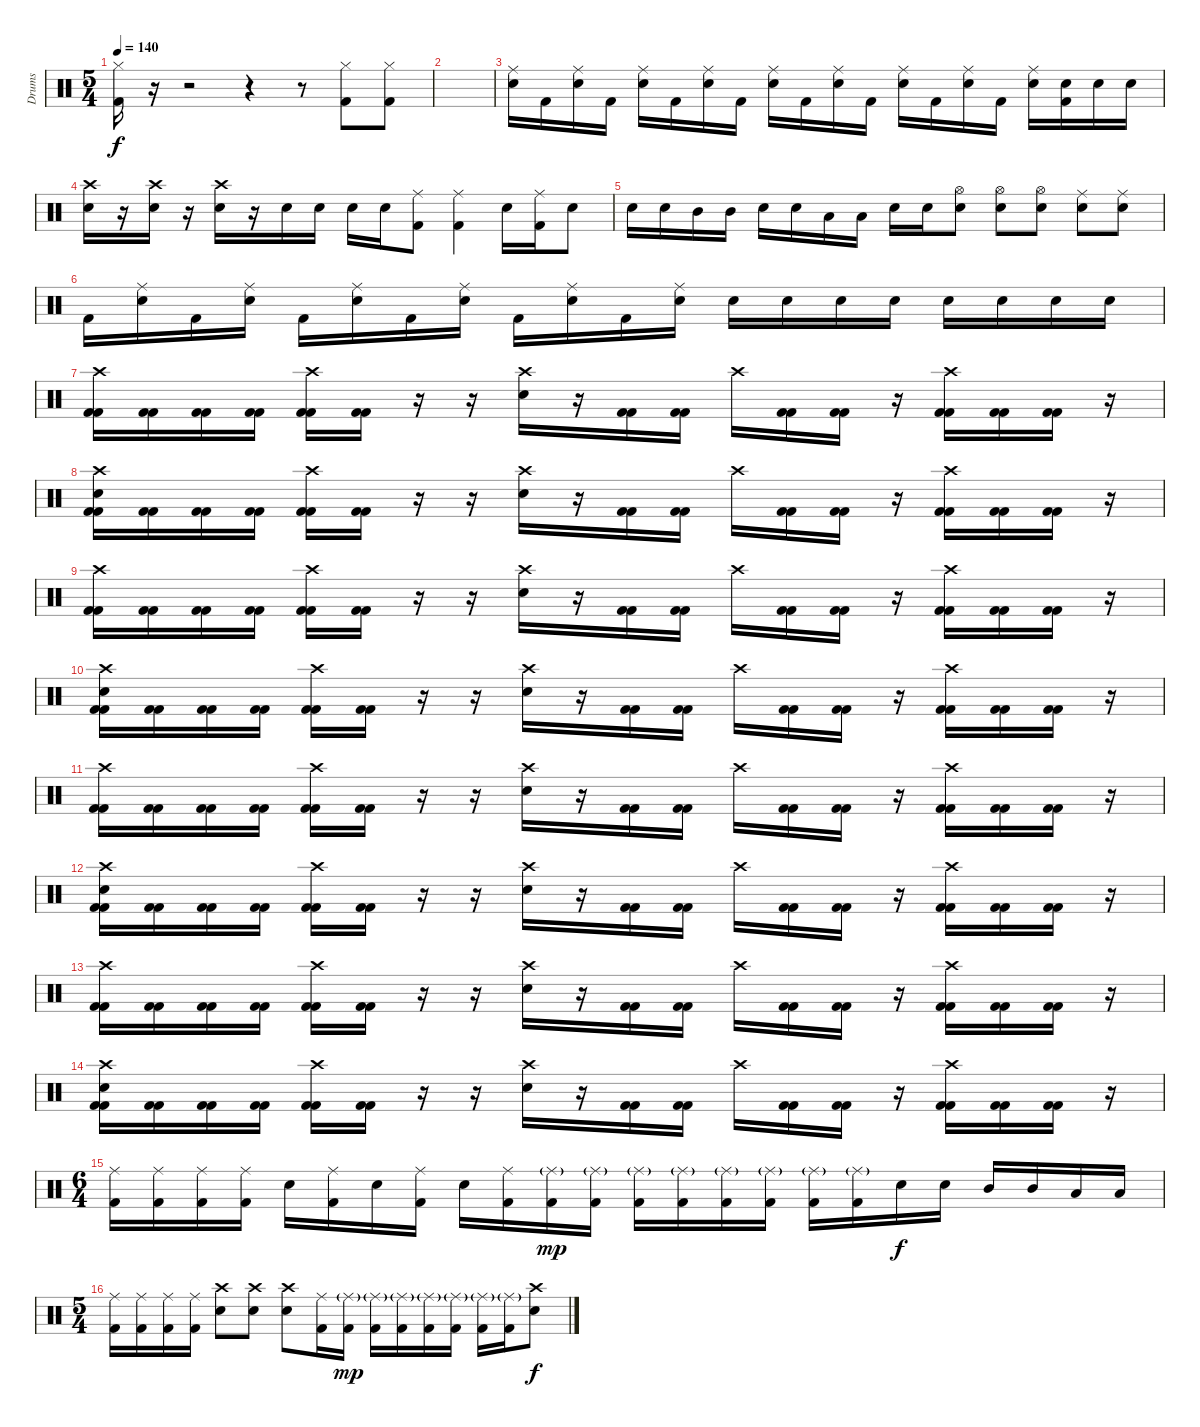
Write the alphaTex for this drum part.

\track ("Drums" "Drums") {instrument percussion}
\staff {score}
\articulation defaults
\ts (5 4)
\tempo 140
\clef neutral
\ks c
("Hi-Hat (closed)" "Kick (hit) 2").16{dy f} r.16 r.2 r.4 r.8 ("Hi-Hat (closed)" "Kick (hit) 2").8 ("Hi-Hat (closed)" "Kick (hit) 2").8 |
|
("Ride (middle)" "Electric Snare (hit)").16 "Kick (hit) 2".16 ("Ride (middle)" "Electric Snare (hit)").16 "Kick (hit) 2".16 ("Ride (middle)" "Electric Snare (hit)").16 "Kick (hit) 2".16 ("Ride (middle)" "Electric Snare (hit)").16 "Kick (hit) 2".16 ("Ride (middle)" "Electric Snare (hit)").16 "Kick (hit) 2".16 ("Ride (middle)" "Electric Snare (hit)").16 "Kick (hit) 2".16 ("Ride (middle)" "Electric Snare (hit)").16 "Kick (hit) 2".16 ("Ride (middle)" "Electric Snare (hit)").16 "Kick (hit) 2".16 ("Ride (middle)" "Electric Snare (hit)").16 ("Electric Snare (hit)" "Kick (hit) 2").16 "Electric Snare (hit)".16 "Electric Snare (hit)".16 |
("Crash high (hit)" "Electric Snare (hit)").16 r.16 ("Crash high (hit)" "Electric Snare (hit)").16 r.16 ("Crash high (hit)" "Electric Snare (hit)").16 r.16 "Electric Snare (hit)".16 "Electric Snare (hit)".16 "Electric Snare (hit)".16 "Electric Snare (hit)".16 ("Ride (middle)" "Kick (hit) 2").8 ("Ride (middle)" "Kick (hit) 2").4 "Electric Snare (hit)".16 ("Ride (middle)" "Kick (hit) 2").16 "Electric Snare (hit)".8 |
"Electric Snare (hit)".16 "Electric Snare (hit)".16 "Mid Tom (hit)".16 "Mid Tom (hit)".16 "Electric Snare (hit)".16 "Electric Snare (hit)".16 "Low Tom (hit)".16 "Low Tom (hit)".16 "Electric Snare (hit)".16 "Electric Snare (hit)".16 ("Hi-Hat (open)" "Electric Snare (hit)").8 ("Hi-Hat (open)" "Electric Snare (hit)").8 ("Hi-Hat (open)" "Electric Snare (hit)").8 ("Ride (middle)" "Electric Snare (hit)").8 ("Ride (middle)" "Electric Snare (hit)").8 |
"Kick (hit) 2".16 ("Ride (middle)" "Electric Snare (hit)").16 "Kick (hit) 2".16 ("Ride (middle)" "Electric Snare (hit)").16 "Kick (hit) 2".16 ("Ride (middle)" "Electric Snare (hit)").16 "Kick (hit) 2".16 ("Ride (middle)" "Electric Snare (hit)").16 "Kick (hit) 2".16 ("Ride (middle)" "Electric Snare (hit)").16 "Kick (hit) 2".16 ("Ride (middle)" "Electric Snare (hit)").16 "Electric Snare (hit)".16 "Electric Snare (hit)".16 "Electric Snare (hit)".16 "Electric Snare (hit)".16 "Electric Snare (hit)".16 "Electric Snare (hit)".16 "Electric Snare (hit)".16 "Electric Snare (hit)".16 |
("Kick (hit) 2" "Crash high (hit)" "Kick (hit) 2").16 ("Kick (hit) 2" "Kick (hit) 2").16 ("Kick (hit) 2" "Kick (hit) 2").16 ("Kick (hit) 2" "Kick (hit) 2").16 ("Kick (hit) 2" "Crash high (hit)" "Kick (hit) 2").16 ("Kick (hit) 2" "Kick (hit) 2").16 r.16 r.16 ("Crash high (hit)" "Electric Snare (hit)").16 r.16 ("Kick (hit) 2" "Kick (hit) 2").16 ("Kick (hit) 2" "Kick (hit) 2").16 "Crash high (hit)".16 ("Kick (hit) 2" "Kick (hit) 2").16 ("Kick (hit) 2" "Kick (hit) 2").16 r.16 ("Kick (hit) 2" "Crash high (hit)" "Kick (hit) 2").16 ("Kick (hit) 2" "Kick (hit) 2").16 ("Kick (hit) 2" "Kick (hit) 2").16 r.16 |
("Kick (hit) 2" "Crash high (hit)" "Electric Snare (hit)" "Kick (hit) 2").16 ("Kick (hit) 2" "Kick (hit) 2").16 ("Kick (hit) 2" "Kick (hit) 2").16 ("Kick (hit) 2" "Kick (hit) 2").16 ("Kick (hit) 2" "Crash high (hit)" "Kick (hit) 2").16 ("Kick (hit) 2" "Kick (hit) 2").16 r.16 r.16 ("Crash high (hit)" "Electric Snare (hit)").16 r.16 ("Kick (hit) 2" "Kick (hit) 2").16 ("Kick (hit) 2" "Kick (hit) 2").16 "Crash high (hit)".16 ("Kick (hit) 2" "Kick (hit) 2").16 ("Kick (hit) 2" "Kick (hit) 2").16 r.16 ("Kick (hit) 2" "Crash high (hit)" "Kick (hit) 2").16 ("Kick (hit) 2" "Kick (hit) 2").16 ("Kick (hit) 2" "Kick (hit) 2").16 r.16 |
("Kick (hit) 2" "Crash high (hit)" "Kick (hit) 2").16 ("Kick (hit) 2" "Kick (hit) 2").16 ("Kick (hit) 2" "Kick (hit) 2").16 ("Kick (hit) 2" "Kick (hit) 2").16 ("Kick (hit) 2" "Crash high (hit)" "Kick (hit) 2").16 ("Kick (hit) 2" "Kick (hit) 2").16 r.16 r.16 ("Crash high (hit)" "Electric Snare (hit)").16 r.16 ("Kick (hit) 2" "Kick (hit) 2").16 ("Kick (hit) 2" "Kick (hit) 2").16 "Crash high (hit)".16 ("Kick (hit) 2" "Kick (hit) 2").16 ("Kick (hit) 2" "Kick (hit) 2").16 r.16 ("Kick (hit) 2" "Crash high (hit)" "Kick (hit) 2").16 ("Kick (hit) 2" "Kick (hit) 2").16 ("Kick (hit) 2" "Kick (hit) 2").16 r.16 |
("Kick (hit) 2" "Crash high (hit)" "Electric Snare (hit)" "Kick (hit) 2").16 ("Kick (hit) 2" "Kick (hit) 2").16 ("Kick (hit) 2" "Kick (hit) 2").16 ("Kick (hit) 2" "Kick (hit) 2").16 ("Kick (hit) 2" "Crash high (hit)" "Kick (hit) 2").16 ("Kick (hit) 2" "Kick (hit) 2").16 r.16 r.16 ("Crash high (hit)" "Electric Snare (hit)").16 r.16 ("Kick (hit) 2" "Kick (hit) 2").16 ("Kick (hit) 2" "Kick (hit) 2").16 "Crash high (hit)".16 ("Kick (hit) 2" "Kick (hit) 2").16 ("Kick (hit) 2" "Kick (hit) 2").16 r.16 ("Kick (hit) 2" "Crash high (hit)" "Kick (hit) 2").16 ("Kick (hit) 2" "Kick (hit) 2").16 ("Kick (hit) 2" "Kick (hit) 2").16 r.16 |
("Kick (hit) 2" "Crash high (hit)" "Kick (hit) 2").16 ("Kick (hit) 2" "Kick (hit) 2").16 ("Kick (hit) 2" "Kick (hit) 2").16 ("Kick (hit) 2" "Kick (hit) 2").16 ("Kick (hit) 2" "Crash high (hit)" "Kick (hit) 2").16 ("Kick (hit) 2" "Kick (hit) 2").16 r.16 r.16 ("Crash high (hit)" "Electric Snare (hit)").16 r.16 ("Kick (hit) 2" "Kick (hit) 2").16 ("Kick (hit) 2" "Kick (hit) 2").16 "Crash high (hit)".16 ("Kick (hit) 2" "Kick (hit) 2").16 ("Kick (hit) 2" "Kick (hit) 2").16 r.16 ("Kick (hit) 2" "Crash high (hit)" "Kick (hit) 2").16 ("Kick (hit) 2" "Kick (hit) 2").16 ("Kick (hit) 2" "Kick (hit) 2").16 r.16 |
("Kick (hit) 2" "Crash high (hit)" "Electric Snare (hit)" "Kick (hit) 2").16 ("Kick (hit) 2" "Kick (hit) 2").16 ("Kick (hit) 2" "Kick (hit) 2").16 ("Kick (hit) 2" "Kick (hit) 2").16 ("Kick (hit) 2" "Crash high (hit)" "Kick (hit) 2").16 ("Kick (hit) 2" "Kick (hit) 2").16 r.16 r.16 ("Crash high (hit)" "Electric Snare (hit)").16 r.16 ("Kick (hit) 2" "Kick (hit) 2").16 ("Kick (hit) 2" "Kick (hit) 2").16 "Crash high (hit)".16 ("Kick (hit) 2" "Kick (hit) 2").16 ("Kick (hit) 2" "Kick (hit) 2").16 r.16 ("Kick (hit) 2" "Crash high (hit)" "Kick (hit) 2").16 ("Kick (hit) 2" "Kick (hit) 2").16 ("Kick (hit) 2" "Kick (hit) 2").16 r.16 |
("Kick (hit) 2" "Crash high (hit)" "Kick (hit) 2").16 ("Kick (hit) 2" "Kick (hit) 2").16 ("Kick (hit) 2" "Kick (hit) 2").16 ("Kick (hit) 2" "Kick (hit) 2").16 ("Kick (hit) 2" "Crash high (hit)" "Kick (hit) 2").16 ("Kick (hit) 2" "Kick (hit) 2").16 r.16 r.16 ("Crash high (hit)" "Electric Snare (hit)").16 r.16 ("Kick (hit) 2" "Kick (hit) 2").16 ("Kick (hit) 2" "Kick (hit) 2").16 "Crash high (hit)".16 ("Kick (hit) 2" "Kick (hit) 2").16 ("Kick (hit) 2" "Kick (hit) 2").16 r.16 ("Kick (hit) 2" "Crash high (hit)" "Kick (hit) 2").16 ("Kick (hit) 2" "Kick (hit) 2").16 ("Kick (hit) 2" "Kick (hit) 2").16 r.16 |
("Kick (hit) 2" "Crash high (hit)" "Electric Snare (hit)" "Kick (hit) 2").16 ("Kick (hit) 2" "Kick (hit) 2").16 ("Kick (hit) 2" "Kick (hit) 2").16 ("Kick (hit) 2" "Kick (hit) 2").16 ("Kick (hit) 2" "Crash high (hit)" "Kick (hit) 2").16 ("Kick (hit) 2" "Kick (hit) 2").16 r.16 r.16 ("Crash high (hit)" "Electric Snare (hit)").16 r.16 ("Kick (hit) 2" "Kick (hit) 2").16 ("Kick (hit) 2" "Kick (hit) 2").16 "Crash high (hit)".16 ("Kick (hit) 2" "Kick (hit) 2").16 ("Kick (hit) 2" "Kick (hit) 2").16 r.16 ("Kick (hit) 2" "Crash high (hit)" "Kick (hit) 2").16 ("Kick (hit) 2" "Kick (hit) 2").16 ("Kick (hit) 2" "Kick (hit) 2").16 r.16 |
\ts (6 4)
("Ride (middle)" "Kick (hit) 2").16 ("Ride (middle)" "Kick (hit) 2").16 ("Ride (middle)" "Kick (hit) 2").16 ("Ride (middle)" "Kick (hit) 2").16 "Electric Snare (hit)".16 ("Ride (middle)" "Kick (hit) 2").16 "Electric Snare (hit)".16 ("Ride (middle)" "Kick (hit) 2").16 "Electric Snare (hit)".16 ("Ride (middle)" "Kick (hit) 2").16 ("Ride (middle)"{g} "Kick (hit) 2").16{dy mp} ("Ride (middle)"{g} "Kick (hit) 2").16 ("Ride (middle)"{g} "Kick (hit) 2").16 ("Ride (middle)"{g} "Kick (hit) 2").16 ("Ride (middle)"{g} "Kick (hit) 2").16 ("Ride (middle)"{g} "Kick (hit) 2").16 ("Ride (middle)"{g} "Kick (hit) 2").16 ("Ride (middle)"{g} "Kick (hit) 2").16 "Electric Snare (hit)".16{dy f} "Electric Snare (hit)".16 "Mid Tom (hit)".16 "Mid Tom (hit)".16 "Low Tom (hit)".16 "Low Tom (hit)".16 |
\ts (5 4)
("Ride (middle)" "Kick (hit) 2").16 ("Ride (middle)" "Kick (hit) 2").16 ("Ride (middle)" "Kick (hit) 2").16 ("Ride (middle)" "Kick (hit) 2").16 ("Crash high (hit)" "Electric Snare (hit)").8 ("Crash high (hit)" "Electric Snare (hit)").8 ("Crash high (hit)" "Electric Snare (hit)").8 ("Ride (middle)" "Kick (hit) 2").16 ("Ride (middle)"{g} "Kick (hit) 2").16{dy mp} ("Ride (middle)"{g} "Kick (hit) 2").16 ("Ride (middle)"{g} "Kick (hit) 2").16 ("Ride (middle)"{g} "Kick (hit) 2").16 ("Ride (middle)"{g} "Kick (hit) 2").16 ("Ride (middle)"{g} "Kick (hit) 2").16 ("Ride (middle)"{g} "Kick (hit) 2").16 ("Crash high (hit)" "Electric Snare (hit)").8{dy f}
